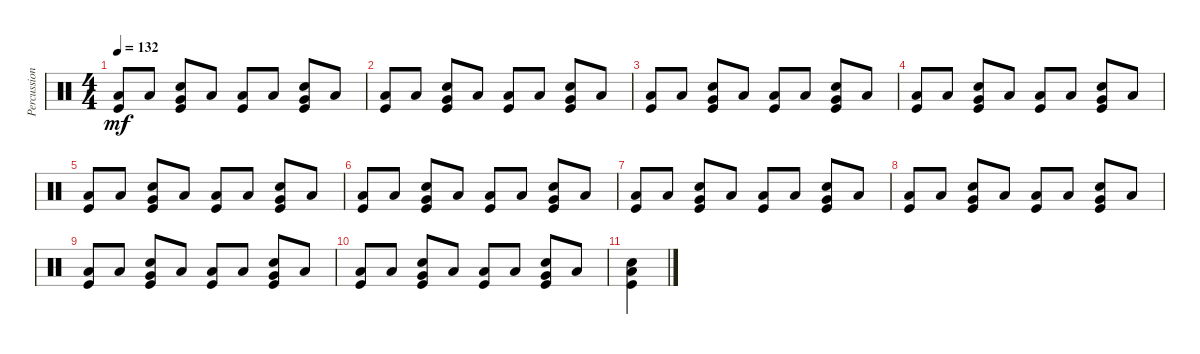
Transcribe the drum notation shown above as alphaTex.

\track ("Percussions" "Percussion") {instrument percussion}
\staff {score}
\articulation defaults
\ts (4 4)
\tempo 132
\clef neutral
\ks c
("Low Floor Tom (hit)" "Kick (hit)").8{dy mf} "Low Floor Tom (hit)".8 ("Very Low Tom (hit)" "Snare (hit) 2" "Kick (hit)").8 "Low Floor Tom (hit)".8 ("Low Floor Tom (hit)" "Kick (hit)").8 "Low Floor Tom (hit)".8 ("Very Low Tom (hit)" "Snare (hit) 2" "Kick (hit)").8 "Low Floor Tom (hit)".8 |
("Low Floor Tom (hit)" "Kick (hit)").8 "Low Floor Tom (hit)".8 ("Very Low Tom (hit)" "Snare (hit) 2" "Kick (hit)").8 "Low Floor Tom (hit)".8 ("Low Floor Tom (hit)" "Kick (hit)").8 "Low Floor Tom (hit)".8 ("Very Low Tom (hit)" "Snare (hit) 2" "Kick (hit)").8 "Low Floor Tom (hit)".8 |
("Low Floor Tom (hit)" "Kick (hit)").8 "Low Floor Tom (hit)".8 ("Very Low Tom (hit)" "Snare (hit) 2" "Kick (hit)").8 "Low Floor Tom (hit)".8 ("Low Floor Tom (hit)" "Kick (hit)").8 "Low Floor Tom (hit)".8 ("Very Low Tom (hit)" "Snare (hit) 2" "Kick (hit)").8 "Low Floor Tom (hit)".8 |
("Low Floor Tom (hit)" "Kick (hit)").8 "Low Floor Tom (hit)".8 ("Very Low Tom (hit)" "Snare (hit) 2" "Kick (hit)").8 "Low Floor Tom (hit)".8 ("Low Floor Tom (hit)" "Kick (hit)").8 "Low Floor Tom (hit)".8 ("Very Low Tom (hit)" "Snare (hit) 2" "Kick (hit)").8 "Low Floor Tom (hit)".8 |
("Low Floor Tom (hit)" "Kick (hit)").8 "Low Floor Tom (hit)".8 ("Very Low Tom (hit)" "Snare (hit) 2" "Kick (hit)").8 "Low Floor Tom (hit)".8 ("Low Floor Tom (hit)" "Kick (hit)").8 "Low Floor Tom (hit)".8 ("Very Low Tom (hit)" "Snare (hit) 2" "Kick (hit)").8 "Low Floor Tom (hit)".8 |
("Low Floor Tom (hit)" "Kick (hit)").8 "Low Floor Tom (hit)".8 ("Very Low Tom (hit)" "Snare (hit) 2" "Kick (hit)").8 "Low Floor Tom (hit)".8 ("Low Floor Tom (hit)" "Kick (hit)").8 "Low Floor Tom (hit)".8 ("Very Low Tom (hit)" "Snare (hit) 2" "Kick (hit)").8 "Low Floor Tom (hit)".8 |
("Low Floor Tom (hit)" "Kick (hit)").8 "Low Floor Tom (hit)".8 ("Very Low Tom (hit)" "Snare (hit) 2" "Kick (hit)").8 "Low Floor Tom (hit)".8 ("Low Floor Tom (hit)" "Kick (hit)").8 "Low Floor Tom (hit)".8 ("Very Low Tom (hit)" "Snare (hit) 2" "Kick (hit)").8 "Low Floor Tom (hit)".8 |
("Low Floor Tom (hit)" "Kick (hit)").8 "Low Floor Tom (hit)".8 ("Very Low Tom (hit)" "Snare (hit) 2" "Kick (hit)").8 "Low Floor Tom (hit)".8 ("Low Floor Tom (hit)" "Kick (hit)").8 "Low Floor Tom (hit)".8 ("Very Low Tom (hit)" "Snare (hit) 2" "Kick (hit)").8 "Low Floor Tom (hit)".8 |
("Low Floor Tom (hit)" "Kick (hit)").8 "Low Floor Tom (hit)".8 ("Very Low Tom (hit)" "Snare (hit) 2" "Kick (hit)").8 "Low Floor Tom (hit)".8 ("Low Floor Tom (hit)" "Kick (hit)").8 "Low Floor Tom (hit)".8 ("Very Low Tom (hit)" "Snare (hit) 2" "Kick (hit)").8 "Low Floor Tom (hit)".8 |
("Low Floor Tom (hit)" "Kick (hit)").8 "Low Floor Tom (hit)".8 ("Very Low Tom (hit)" "Snare (hit) 2" "Kick (hit)").8 "Low Floor Tom (hit)".8 ("Low Floor Tom (hit)" "Kick (hit)").8 "Low Floor Tom (hit)".8 ("Very Low Tom (hit)" "Snare (hit) 2" "Kick (hit)").8 "Low Floor Tom (hit)".8 |
("Low Floor Tom (hit)" "Snare (hit) 2" "Kick (hit)").4
